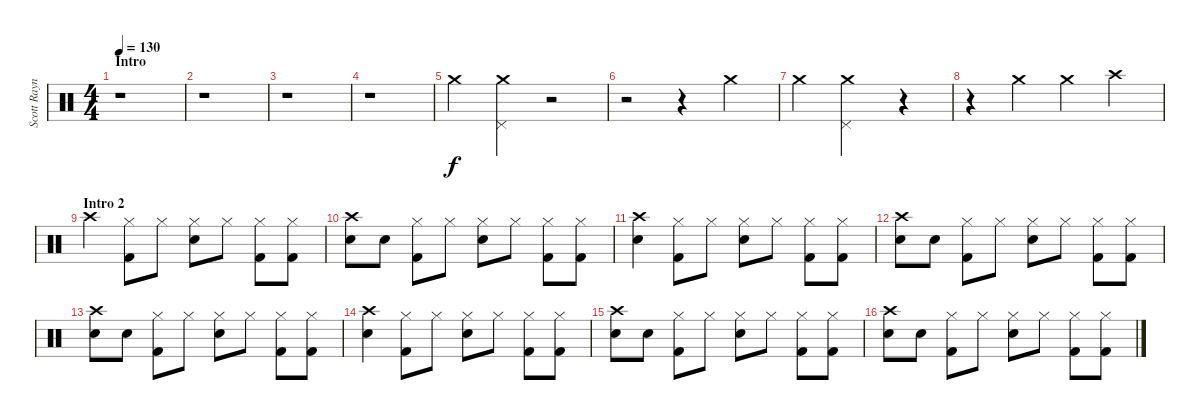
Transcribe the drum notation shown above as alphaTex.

\track ("Scott Raynor Drums" "Scott Rayn") {instrument percussion}
\staff {score}
\articulation defaults
\ts (4 4)
\section ("" "Intro")
\tempo 130
\clef neutral
\ks c
r.1{dy f} |
r.1 |
r.1 |
r.1 |
"Crash medium (hit)".4 ("Pedal Hi-Hat (hit)" "Crash medium (hit)").4 r.2 |
r.2 r.4 "Crash medium (hit)".4 |
"Crash medium (hit)".4 ("Pedal Hi-Hat (hit)" "Crash medium (hit)").2 r.4 |
r.4 "Crash medium (hit)".4 "Crash medium (hit)".4 "Crash high (hit)".4 |
\section ("" "Intro 2")
"Crash high (hit)".4 ("Hi-Hat (closed)" "Kick (hit) 2").8 "Hi-Hat (closed)".8 ("Hi-Hat (closed)" "Electric Snare (hit)").8 "Hi-Hat (closed)".8 ("Hi-Hat (closed)" "Kick (hit) 2").8 ("Hi-Hat (closed)" "Kick (hit) 2").8 |
("Crash high (hit)" "Electric Snare (hit)").8 "Electric Snare (hit)".8 ("Hi-Hat (closed)" "Kick (hit) 2").8 "Hi-Hat (closed)".8 ("Hi-Hat (closed)" "Electric Snare (hit)").8 "Hi-Hat (closed)".8 ("Hi-Hat (closed)" "Kick (hit) 2").8 ("Hi-Hat (closed)" "Kick (hit) 2").8 |
("Crash high (hit)" "Electric Snare (hit)").4 ("Hi-Hat (closed)" "Kick (hit) 2").8 "Hi-Hat (closed)".8 ("Hi-Hat (closed)" "Electric Snare (hit)").8 "Hi-Hat (closed)".8 ("Hi-Hat (closed)" "Kick (hit) 2").8 ("Hi-Hat (closed)" "Kick (hit) 2").8 |
("Crash high (hit)" "Electric Snare (hit)").8 "Electric Snare (hit)".8 ("Hi-Hat (closed)" "Kick (hit) 2").8 "Hi-Hat (closed)".8 ("Hi-Hat (closed)" "Electric Snare (hit)").8 "Hi-Hat (closed)".8 ("Hi-Hat (closed)" "Kick (hit) 2").8 ("Hi-Hat (closed)" "Kick (hit) 2").8 |
("Crash high (hit)" "Electric Snare (hit)").8 "Electric Snare (hit)".8 ("Hi-Hat (closed)" "Kick (hit) 2").8 "Hi-Hat (closed)".8 ("Hi-Hat (closed)" "Electric Snare (hit)").8 "Hi-Hat (closed)".8 ("Hi-Hat (closed)" "Kick (hit) 2").8 ("Hi-Hat (closed)" "Kick (hit) 2").8 |
("Crash high (hit)" "Electric Snare (hit)").4 ("Hi-Hat (closed)" "Kick (hit) 2").8 "Hi-Hat (closed)".8 ("Hi-Hat (closed)" "Electric Snare (hit)").8 "Hi-Hat (closed)".8 ("Hi-Hat (closed)" "Kick (hit) 2").8 ("Hi-Hat (closed)" "Kick (hit) 2").8 |
("Crash high (hit)" "Electric Snare (hit)").8 "Electric Snare (hit)".8 ("Hi-Hat (closed)" "Kick (hit) 2").8 "Hi-Hat (closed)".8 ("Hi-Hat (closed)" "Electric Snare (hit)").8 "Hi-Hat (closed)".8 ("Hi-Hat (closed)" "Kick (hit) 2").8 ("Hi-Hat (closed)" "Kick (hit) 2").8 |
("Crash high (hit)" "Electric Snare (hit)").8 "Electric Snare (hit)".8 ("Hi-Hat (closed)" "Kick (hit) 2").8 "Hi-Hat (closed)".8 ("Hi-Hat (closed)" "Electric Snare (hit)").8 "Hi-Hat (closed)".8 ("Hi-Hat (closed)" "Kick (hit) 2").8 ("Hi-Hat (closed)" "Kick (hit) 2").8
